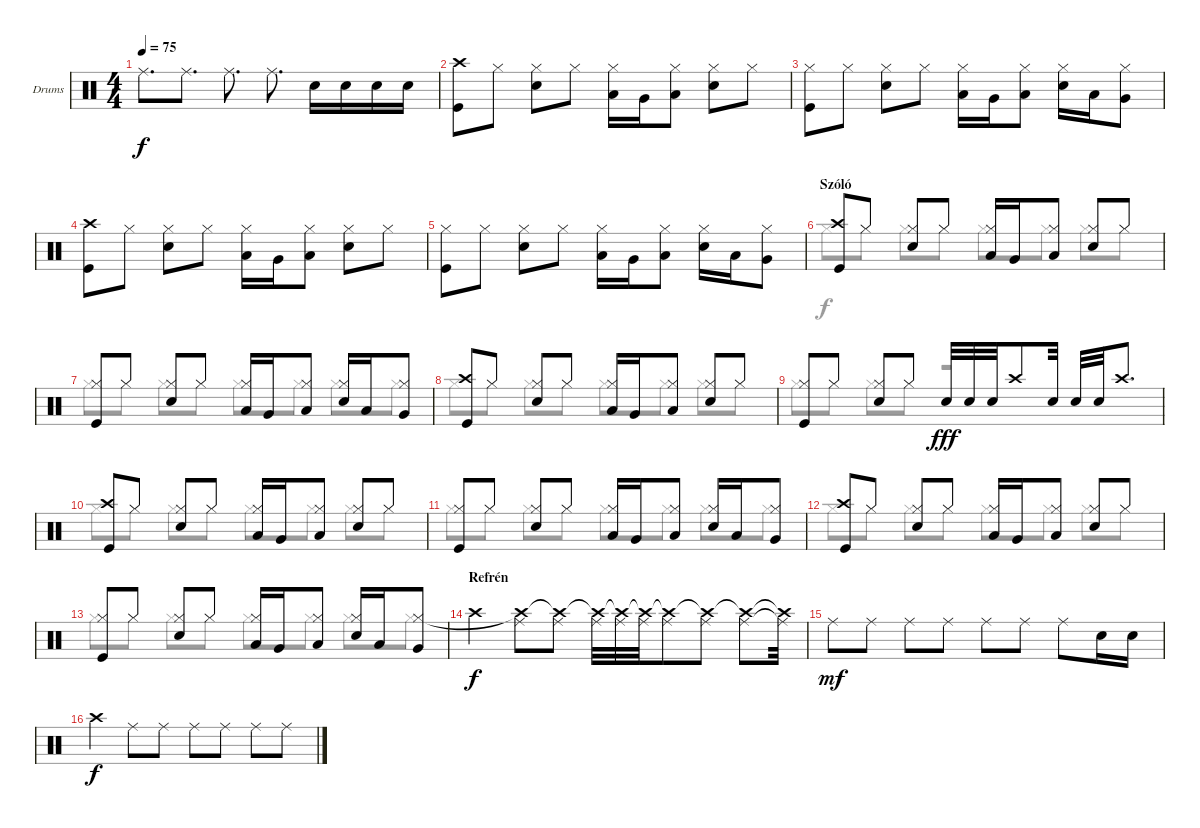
\defaultSystemsLayout 4
\bracketExtendMode groupsimilarinstruments
\firstSystemTrackNameOrientation horizontal
\otherSystemsTrackNameOrientation horizontal
\track ("Craig Nunenmacher" "Drums") {instrument percussion}
\staff {score}
\articulation defaults
\voice
\ts (4 4)
\tempo 75
\clef neutral
\ks c "Ride (middle)".8{d dy f} "Ride (middle)".8{d} "Ride (middle)".8{d} "Ride (middle)".8{d} "Snare (hit) 2".16 "Snare (hit) 2".16 "Snare (hit) 2".16 "Snare (hit) 2".16
|
("Kick (hit)" "Crash high (hit)").8 "Hi-Hat (closed)".8 ("Snare (hit) 2" "Hi-Hat (closed)").8 "Hi-Hat (closed)".8 ("Low Tom (hit)" "Hi-Hat (closed)").16 "Very Low Tom (hit)".16 ("Low Tom (hit)" "Hi-Hat (closed)").8 ("Snare (hit) 2" "Hi-Hat (closed)").8 "Hi-Hat (closed)".8 |
("Kick (hit)" "Hi-Hat (closed)").8 "Hi-Hat (closed)".8 ("Snare (hit) 2" "Hi-Hat (closed)").8 "Hi-Hat (closed)".8 ("Low Tom (hit)" "Hi-Hat (closed)").16 "Very Low Tom (hit)".16 ("Low Tom (hit)" "Hi-Hat (closed)").8 ("Snare (hit) 2" "Hi-Hat (closed)").16 "Low Tom (hit)".16 ("Very Low Tom (hit)" "Hi-Hat (closed)").8 |
("Kick (hit)" "Crash high (hit)").8 "Hi-Hat (closed)".8 ("Snare (hit) 2" "Hi-Hat (closed)").8 "Hi-Hat (closed)".8 ("Low Tom (hit)" "Hi-Hat (closed)").16 "Very Low Tom (hit)".16 ("Low Tom (hit)" "Hi-Hat (closed)").8 ("Snare (hit) 2" "Hi-Hat (closed)").8 "Hi-Hat (closed)".8 |
("Kick (hit)" "Hi-Hat (closed)").8 "Hi-Hat (closed)".8 ("Snare (hit) 2" "Hi-Hat (closed)").8 "Hi-Hat (closed)".8 ("Low Tom (hit)" "Hi-Hat (closed)").16 "Very Low Tom (hit)".16 ("Low Tom (hit)" "Hi-Hat (closed)").8 ("Snare (hit) 2" "Hi-Hat (closed)").16 "Low Tom (hit)".16 ("Very Low Tom (hit)" "Hi-Hat (closed)").8 |
\section ("" "Szóló")
("Kick (hit)" "Crash high (hit)").8 "Hi-Hat (closed)".8 ("Snare (hit) 2" "Hi-Hat (closed)").8 "Hi-Hat (closed)".8 ("Low Tom (hit)" "Hi-Hat (closed)").16 "Very Low Tom (hit)".16 ("Low Tom (hit)" "Hi-Hat (closed)").8 ("Snare (hit) 2" "Hi-Hat (closed)").8 "Hi-Hat (closed)".8 |
("Kick (hit)" "Hi-Hat (closed)").8 "Hi-Hat (closed)".8 ("Snare (hit) 2" "Hi-Hat (closed)").8 "Hi-Hat (closed)".8 ("Low Tom (hit)" "Hi-Hat (closed)").16 "Very Low Tom (hit)".16 ("Low Tom (hit)" "Hi-Hat (closed)").8 ("Snare (hit) 2" "Hi-Hat (closed)").16 "Low Tom (hit)".16 ("Very Low Tom (hit)" "Hi-Hat (closed)").8 |
("Kick (hit)" "Crash high (hit)").8 "Hi-Hat (closed)".8 ("Snare (hit) 2" "Hi-Hat (closed)").8 "Hi-Hat (closed)".8 ("Low Tom (hit)" "Hi-Hat (closed)").16 "Very Low Tom (hit)".16 ("Low Tom (hit)" "Hi-Hat (closed)").8 ("Snare (hit) 2" "Hi-Hat (closed)").8 "Hi-Hat (closed)".8 |
("Kick (hit)" "Hi-Hat (closed)").8 "Hi-Hat (closed)".8 ("Snare (hit) 2" "Hi-Hat (closed)").8 "Hi-Hat (closed)".8 "Snare (hit) 2".32{dy fff} "Snare (hit) 2".32 "Snare (hit) 2".32 "Crash high (hit)".8 "Snare (hit) 2".32 "Snare (hit) 2".32 "Snare (hit) 2".32 "Crash high (hit)".8{d} |
("Kick (hit)" "Crash high (hit)").8 "Hi-Hat (closed)".8 ("Snare (hit) 2" "Hi-Hat (closed)").8 "Hi-Hat (closed)".8 ("Low Tom (hit)" "Hi-Hat (closed)").16 "Very Low Tom (hit)".16 ("Low Tom (hit)" "Hi-Hat (closed)").8 ("Snare (hit) 2" "Hi-Hat (closed)").8 "Hi-Hat (closed)".8 |
("Kick (hit)" "Hi-Hat (closed)").8 "Hi-Hat (closed)".8 ("Snare (hit) 2" "Hi-Hat (closed)").8 "Hi-Hat (closed)".8 ("Low Tom (hit)" "Hi-Hat (closed)").16 "Very Low Tom (hit)".16 ("Low Tom (hit)" "Hi-Hat (closed)").8 ("Snare (hit) 2" "Hi-Hat (closed)").16 "Low Tom (hit)".16 ("Very Low Tom (hit)" "Hi-Hat (closed)").8 |
("Kick (hit)" "Crash high (hit)").8 "Hi-Hat (closed)".8 ("Snare (hit) 2" "Hi-Hat (closed)").8 "Hi-Hat (closed)".8 ("Low Tom (hit)" "Hi-Hat (closed)").16 "Very Low Tom (hit)".16 ("Low Tom (hit)" "Hi-Hat (closed)").8 ("Snare (hit) 2" "Hi-Hat (closed)").8 "Hi-Hat (closed)".8 |
("Kick (hit)" "Hi-Hat (closed)").8 "Hi-Hat (closed)".8 ("Snare (hit) 2" "Hi-Hat (closed)").8 "Hi-Hat (closed)".8 ("Low Tom (hit)" "Hi-Hat (closed)").16 "Very Low Tom (hit)".16 ("Low Tom (hit)" "Hi-Hat (closed)").8 ("Snare (hit) 2" "Hi-Hat (closed)").16 "Low Tom (hit)".16 ("Very Low Tom (hit)" "Hi-Hat (closed)").8 |
\section ("" "Refrén")
"Crash high (hit)".4{dy f} ("Ride (middle)" "Crash high (hit)"{t}).8 ("Ride (middle)" "Crash high (hit)"{t}).8 ("Ride (middle)" "Crash high (hit)"{t}).32 ("Ride (middle)" "Crash high (hit)"{t}).32 ("Ride (middle)" "Crash high (hit)"{t}).32 ("Ride (middle)" "Crash high (hit)"{t}).8 ("Ride (middle)" "Crash high (hit)"{t}).8 ("Ride (middle)" "Crash high (hit)"{t}).8 ("Ride (middle)"{t} "Crash high (hit)"{t}).32 |
"Ride (middle)".8{dy mf} "Ride (middle)".8 "Ride (middle)".8 "Ride (middle)".8 "Ride (middle)".8 "Ride (middle)".8 "Ride (middle)".8 "Snare (hit) 2".16 "Snare (hit) 2".16 |
"Crash high (hit)".4{dy f} "Ride (middle)".8 "Ride (middle)".8 "Ride (middle)".8 "Ride (middle)".8 "Ride (middle)".8 "Ride (middle)".8
\voice
\clef neutral
\ottava regular
\simile none
\ks c
|
|
|
|
|
"Hi-Hat (closed)".8 "Hi-Hat (closed)".8 "Hi-Hat (closed)".8 "Hi-Hat (closed)".8 "Hi-Hat (closed)".8 "Hi-Hat (closed)".8 "Hi-Hat (closed)".8 "Hi-Hat (closed)".8 |
"Hi-Hat (closed)".8 "Hi-Hat (closed)".8 "Hi-Hat (closed)".8 "Hi-Hat (closed)".8 "Hi-Hat (closed)".8 "Hi-Hat (closed)".8 "Hi-Hat (closed)".8 "Hi-Hat (closed)".8 |
"Hi-Hat (closed)".8 "Hi-Hat (closed)".8 "Hi-Hat (closed)".8 "Hi-Hat (closed)".8 "Hi-Hat (closed)".8 "Hi-Hat (closed)".8 "Hi-Hat (closed)".8 "Hi-Hat (closed)".8 |
"Hi-Hat (closed)".8 "Hi-Hat (closed)".8 "Hi-Hat (closed)".8 "Hi-Hat (closed)".8 r.2 |
"Hi-Hat (closed)".8 "Hi-Hat (closed)".8 "Hi-Hat (closed)".8 "Hi-Hat (closed)".8 "Hi-Hat (closed)".8 "Hi-Hat (closed)".8 "Hi-Hat (closed)".8 "Hi-Hat (closed)".8 |
"Hi-Hat (closed)".8 "Hi-Hat (closed)".8 "Hi-Hat (closed)".8 "Hi-Hat (closed)".8 "Hi-Hat (closed)".8 "Hi-Hat (closed)".8 "Hi-Hat (closed)".8 "Hi-Hat (closed)".8 |
"Hi-Hat (closed)".8 "Hi-Hat (closed)".8 "Hi-Hat (closed)".8 "Hi-Hat (closed)".8 "Hi-Hat (closed)".8 "Hi-Hat (closed)".8 "Hi-Hat (closed)".8 "Hi-Hat (closed)".8 |
"Hi-Hat (closed)".8 "Hi-Hat (closed)".8 "Hi-Hat (closed)".8 "Hi-Hat (closed)".8 "Hi-Hat (closed)".8 "Hi-Hat (closed)".8 "Hi-Hat (closed)".8 "Hi-Hat (closed)".8 |
|
|
